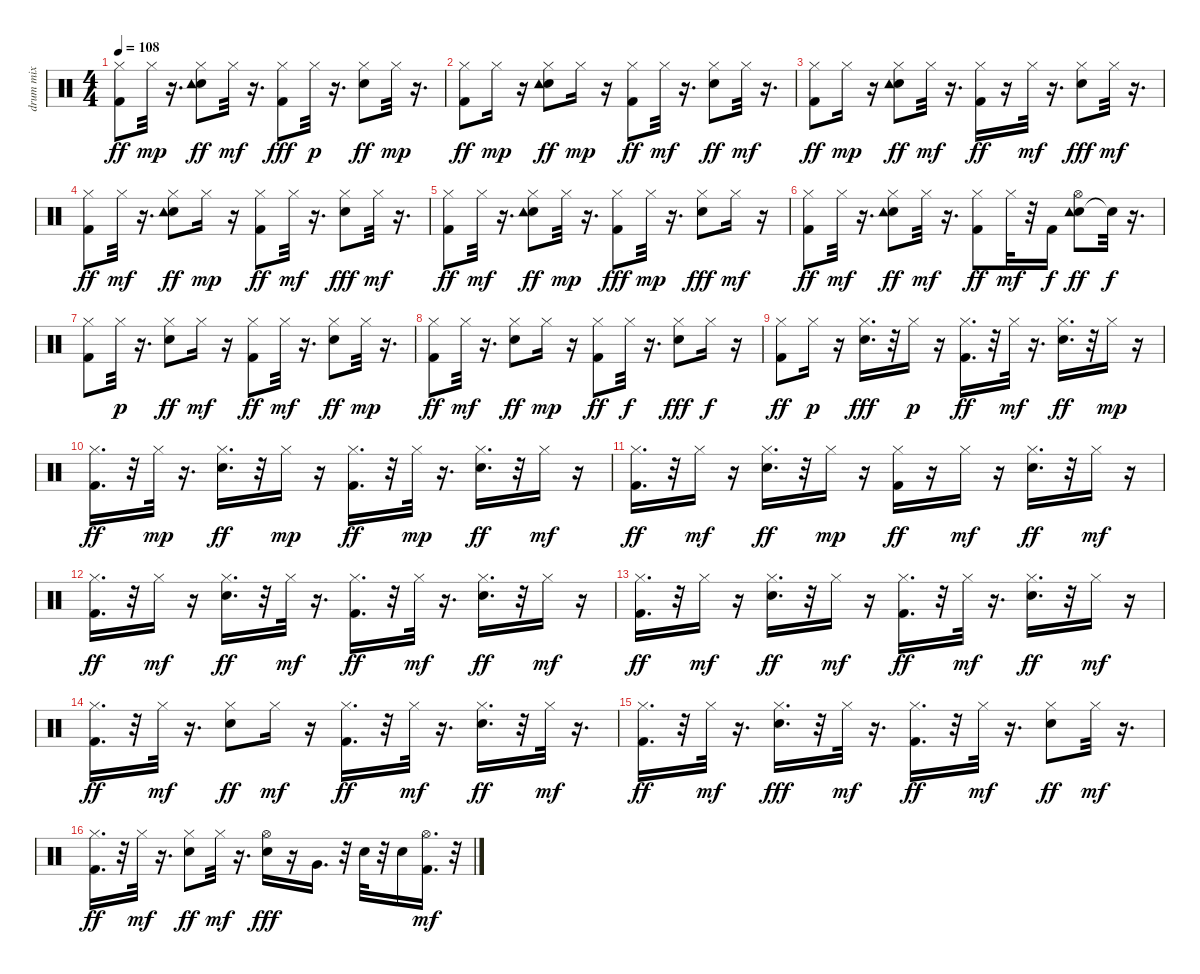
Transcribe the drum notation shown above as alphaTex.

\track ("drum mix" "drum mix") {instrument percussion}
\staff {score}
\articulation defaults
\ts (4 4)
\tempo 108
\clef neutral
\ks c
("Kick (hit) 2" "Hi-Hat (closed)").8{dy ff} "Hi-Hat (closed)".32{dy mp} r.16{d} ("Electric Snare (hit)" "Hi-Hat (closed)" "Tambourine (hit)").8{dy ff} "Hi-Hat (closed)".32{dy mf} r.16{d} ("Kick (hit) 2" "Hi-Hat (closed)").8{dy fff} "Hi-Hat (closed)".32{dy p} r.16{d} ("Electric Snare (hit)" "Hi-Hat (closed)").8{dy ff} "Hi-Hat (closed)".32{dy mp} r.16{d} |
("Kick (hit) 2" "Hi-Hat (closed)").8{dy ff} "Hi-Hat (closed)".16{dy mp} r.16 ("Electric Snare (hit)" "Hi-Hat (closed)" "Tambourine (hit)").8{dy ff} "Hi-Hat (closed)".16{dy mp} r.16 ("Kick (hit) 2" "Hi-Hat (closed)").8{dy ff} "Hi-Hat (closed)".32{dy mf} r.16{d} ("Electric Snare (hit)" "Hi-Hat (closed)").8{dy ff} "Hi-Hat (closed)".32{dy mf} r.16{d} |
("Kick (hit) 2" "Hi-Hat (closed)").8{dy ff} "Hi-Hat (closed)".16{dy mp} r.16 ("Electric Snare (hit)" "Hi-Hat (closed)" "Tambourine (hit)").8{dy ff} "Hi-Hat (closed)".32{dy mf} r.16{d} ("Kick (hit) 2" "Hi-Hat (closed)").16{dy ff} r.16 "Hi-Hat (closed)".32{dy mf} r.16{d} ("Electric Snare (hit)" "Hi-Hat (closed)").8{dy fff} "Hi-Hat (closed)".32{dy mf} r.16{d} |
("Kick (hit) 2" "Hi-Hat (closed)").8{dy ff} "Hi-Hat (closed)".32{dy mf} r.16{d} ("Electric Snare (hit)" "Hi-Hat (closed)" "Tambourine (hit)").8{dy ff} "Hi-Hat (closed)".16{dy mp} r.16 ("Kick (hit) 2" "Hi-Hat (closed)").8{dy ff} "Hi-Hat (closed)".32{dy mf} r.16{d} ("Electric Snare (hit)" "Hi-Hat (closed)").8{dy fff} "Hi-Hat (closed)".32{dy mf} r.16{d} |
("Kick (hit) 2" "Hi-Hat (closed)").8{dy ff} "Hi-Hat (closed)".32{dy mf} r.16{d} ("Electric Snare (hit)" "Hi-Hat (closed)" "Tambourine (hit)").8{dy ff} "Hi-Hat (closed)".32{dy mp} r.16{d} ("Kick (hit) 2" "Hi-Hat (closed)").8{dy fff} "Hi-Hat (closed)".32{dy mp} r.16{d} ("Electric Snare (hit)" "Hi-Hat (closed)").8{dy fff} "Hi-Hat (closed)".16{dy mf} r.16 |
("Kick (hit) 2" "Hi-Hat (closed)").8{dy ff} "Hi-Hat (closed)".32{dy mf} r.16{d} ("Electric Snare (hit)" "Hi-Hat (closed)" "Tambourine (hit)").8{dy ff} "Hi-Hat (closed)".32{dy mf} r.16{d} ("Kick (hit) 2" "Hi-Hat (closed)").8{dy ff} "Hi-Hat (closed)".32{dy mf} r.32 "Kick (hit) 2".16{dy f} ("Electric Snare (hit)" "Hi-Hat (open)" "Tambourine (hit)").8{dy ff} "Snare (hit)"{t}.32{dy f} r.16{d} |
("Kick (hit) 2" "Hi-Hat (closed)").8 "Hi-Hat (closed)".32{dy p} r.16{d} ("Electric Snare (hit)" "Hi-Hat (closed)").8{dy ff} "Hi-Hat (closed)".16{dy mf} r.16 ("Kick (hit) 2" "Hi-Hat (closed)").8{dy ff} "Hi-Hat (closed)".32{dy mf} r.16{d} ("Electric Snare (hit)" "Hi-Hat (closed)").8{dy ff} "Hi-Hat (closed)".32{dy mp} r.16{d} |
("Kick (hit) 2" "Hi-Hat (closed)").8{dy ff} "Hi-Hat (closed)".32{dy mf} r.16{d} ("Electric Snare (hit)" "Hi-Hat (closed)").8{dy ff} "Hi-Hat (closed)".16{dy mp} r.16 ("Kick (hit) 2" "Hi-Hat (closed)").8{dy ff} "Hi-Hat (closed)".32{dy f} r.16{d} ("Electric Snare (hit)" "Hi-Hat (closed)").8{dy fff} "Hi-Hat (closed)".16{dy f} r.16 |
("Hi-Hat (closed)" "Kick (hit) 2").8{dy ff} "Hi-Hat (closed)".16{dy p} r.16 ("Electric Snare (hit)" "Hi-Hat (closed)").16{d dy fff} r.32 "Hi-Hat (closed)".16{dy p} r.16 ("Kick (hit) 2" "Hi-Hat (closed)").16{d dy ff} r.32 "Hi-Hat (closed)".32{dy mf} r.16{d} ("Electric Snare (hit)" "Hi-Hat (closed)").16{d dy ff} r.32 "Hi-Hat (closed)".16{dy mp} r.16 |
("Kick (hit) 2" "Hi-Hat (closed)").16{d dy ff} r.32 "Hi-Hat (closed)".32{dy mp} r.16{d} ("Electric Snare (hit)" "Hi-Hat (closed)").16{d dy ff} r.32 "Hi-Hat (closed)".16{dy mp} r.16 ("Kick (hit) 2" "Hi-Hat (closed)").16{d dy ff} r.32 "Hi-Hat (closed)".32{dy mp} r.16{d} ("Electric Snare (hit)" "Hi-Hat (closed)").16{d dy ff} r.32 "Hi-Hat (closed)".16{dy mf} r.16 |
("Kick (hit) 2" "Hi-Hat (closed)").16{d dy ff} r.32 "Hi-Hat (closed)".16{dy mf} r.16 ("Electric Snare (hit)" "Hi-Hat (closed)").16{d dy ff} r.32 "Hi-Hat (closed)".16{dy mp} r.16 ("Kick (hit) 2" "Hi-Hat (closed)").16{dy ff} r.16 "Hi-Hat (closed)".16{dy mf} r.16 ("Electric Snare (hit)" "Hi-Hat (closed)").16{d dy ff} r.32 "Hi-Hat (closed)".16{dy mf} r.16 |
("Kick (hit) 2" "Hi-Hat (closed)").16{d dy ff} r.32 "Hi-Hat (closed)".16{dy mf} r.16 ("Electric Snare (hit)" "Hi-Hat (closed)").16{d dy ff} r.32 "Hi-Hat (closed)".32{dy mf} r.16{d} ("Kick (hit) 2" "Hi-Hat (closed)").16{d dy ff} r.32 "Hi-Hat (closed)".32{dy mf} r.16{d} ("Electric Snare (hit)" "Hi-Hat (closed)").16{d dy ff} r.32 "Hi-Hat (closed)".16{dy mf} r.16 |
("Kick (hit) 2" "Hi-Hat (closed)").16{d dy ff} r.32 "Hi-Hat (closed)".16{dy mf} r.16 ("Electric Snare (hit)" "Hi-Hat (closed)").16{d dy ff} r.32 "Hi-Hat (closed)".16{dy mf} r.16 ("Kick (hit) 2" "Hi-Hat (closed)").16{d dy ff} r.32 "Hi-Hat (closed)".32{dy mf} r.16{d} ("Electric Snare (hit)" "Hi-Hat (closed)").16{d dy ff} r.32 "Hi-Hat (closed)".16{dy mf} r.16 |
("Kick (hit) 2" "Hi-Hat (closed)").16{d dy ff} r.32 "Hi-Hat (closed)".32{dy mf} r.16{d} ("Electric Snare (hit)" "Hi-Hat (closed)").8{dy ff} "Hi-Hat (closed)".16{dy mf} r.16 ("Kick (hit) 2" "Hi-Hat (closed)").16{d dy ff} r.32 "Hi-Hat (closed)".32{dy mf} r.16{d} ("Electric Snare (hit)" "Hi-Hat (closed)").16{d dy ff} r.32 "Hi-Hat (closed)".32{dy mf} r.16{d} |
("Kick (hit) 2" "Hi-Hat (closed)").16{d dy ff} r.32 "Hi-Hat (closed)".32{dy mf} r.16{d} ("Electric Snare (hit)" "Hi-Hat (closed)").16{d dy fff} r.32 "Hi-Hat (closed)".32{dy mf} r.16{d} ("Kick (hit) 2" "Hi-Hat (closed)").16{d dy ff} r.32 "Hi-Hat (closed)".32{dy mf} r.16{d} ("Electric Snare (hit)" "Hi-Hat (closed)").8{dy ff} "Hi-Hat (closed)".32{dy mf} r.16{d} |
("Kick (hit) 2" "Hi-Hat (closed)").16{d dy ff} r.32 "Hi-Hat (closed)".32{dy mf} r.16{d} ("Electric Snare (hit)" "Hi-Hat (closed)").8{dy ff} "Hi-Hat (closed)".32{dy mf} r.16{d} ("Electric Snare (hit)" "Hi-Hat (open)").16{dy fff} r.16 "Very Low Tom (hit)".16{d} r.32 "Electric Snare (hit)".32 r.32 "Electric Snare (hit)".16 ("Kick (hit) 2" "Hi-Hat (open)").16{d dy mf} r.32
